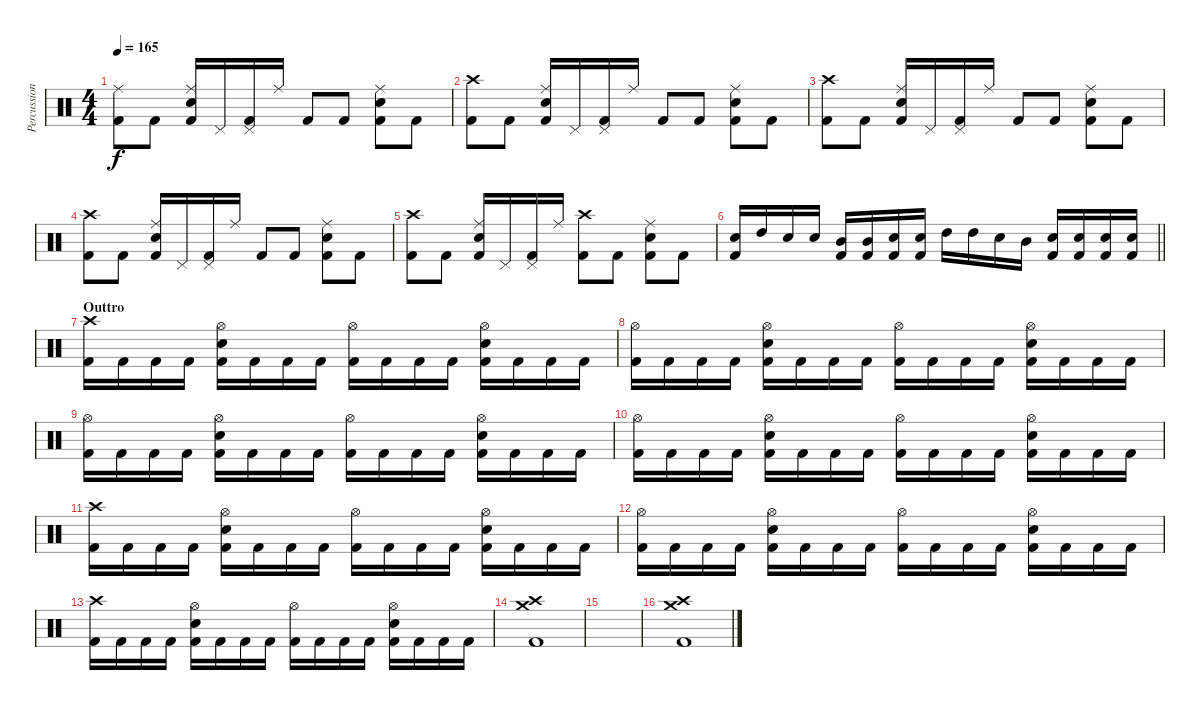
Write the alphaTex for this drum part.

\track ("Percussion" "Percussion") {instrument percussion}
\staff {score}
\articulation defaults
\ts (4 4)
\tempo 165
\clef neutral
\ks c
("Ride (middle)" "Kick (hit) 2").8{dy f} "Kick (hit) 2".8 ("Snare (hit) 2" "Ride (middle)" "Kick (hit) 2").16 "Pedal Hi-Hat (hit)".16 ("Pedal Hi-Hat (hit)" "Kick (hit) 2").16 "Ride (middle)".16 "Kick (hit) 2".8 "Kick (hit) 2".8 ("Ride (middle)" "Snare (hit) 2" "Kick (hit) 2").8 "Kick (hit) 2".8 |
("Crash high (hit)" "Kick (hit) 2").8 "Kick (hit) 2".8 ("Snare (hit) 2" "Ride (middle)" "Kick (hit) 2").16 "Pedal Hi-Hat (hit)".16 ("Pedal Hi-Hat (hit)" "Kick (hit) 2").16 "Ride (middle)".16 "Kick (hit) 2".8 "Kick (hit) 2".8 ("Ride (middle)" "Snare (hit) 2" "Kick (hit) 2").8 "Kick (hit) 2".8 |
("Crash high (hit)" "Kick (hit) 2").8 "Kick (hit) 2".8 ("Snare (hit) 2" "Ride (middle)" "Kick (hit) 2").16 "Pedal Hi-Hat (hit)".16 ("Pedal Hi-Hat (hit)" "Kick (hit) 2").16 "Ride (middle)".16 "Kick (hit) 2".8 "Kick (hit) 2".8 ("Ride (middle)" "Snare (hit) 2" "Kick (hit) 2").8 "Kick (hit) 2".8 |
("Crash high (hit)" "Kick (hit) 2").8 "Kick (hit) 2".8 ("Snare (hit) 2" "Ride (middle)" "Kick (hit) 2").16 "Pedal Hi-Hat (hit)".16 ("Pedal Hi-Hat (hit)" "Kick (hit) 2").16 "Ride (middle)".16 "Kick (hit) 2".8 "Kick (hit) 2".8 ("Ride (middle)" "Snare (hit) 2" "Kick (hit) 2").8 "Kick (hit) 2".8 |
("Crash high (hit)" "Kick (hit) 2").8 "Kick (hit) 2".8 ("Snare (hit) 2" "Ride (middle)" "Kick (hit) 2").16 "Pedal Hi-Hat (hit)".16 ("Pedal Hi-Hat (hit)" "Kick (hit) 2").16 "Ride (middle)".16 ("Crash high (hit)" "Kick (hit) 2").8 "Kick (hit) 2".8 ("Ride (middle)" "Snare (hit) 2" "Kick (hit) 2").8 "Kick (hit) 2".8 |
\barLineRight lightlight
("Snare (hit) 2" "Kick (hit) 2").16 "High Tom (hit)".16 "Snare (hit) 2".16 "Snare (hit) 2".16 ("Mid Tom (hit)" "Kick (hit) 2").16 ("Mid Tom (hit)" "Kick (hit) 2").16 ("Snare (hit) 2" "Kick (hit) 2").16 ("Snare (hit) 2" "Kick (hit) 2").16 "High Tom (hit)".16 "High Tom (hit)".16 "Snare (hit) 2".16 "Mid Tom (hit)".16 ("Snare (hit) 2" "Kick (hit) 2").16 ("Snare (hit) 2" "Kick (hit) 2").16 ("Snare (hit) 2" "Kick (hit) 2").16 ("Snare (hit) 2" "Kick (hit) 2").16 |
\section ("" "Outtro")
("Kick (hit) 2" "Crash high (hit)").16 "Kick (hit) 2".16 "Kick (hit) 2".16 "Kick (hit) 2".16 ("Kick (hit) 2" "Hi-Hat (open)" "Snare (hit) 2").16 "Kick (hit) 2".16 "Kick (hit) 2".16 "Kick (hit) 2".16 ("Kick (hit) 2" "Hi-Hat (open)").16 "Kick (hit) 2".16 "Kick (hit) 2".16 "Kick (hit) 2".16 ("Kick (hit) 2" "Hi-Hat (open)" "Snare (hit) 2").16 "Kick (hit) 2".16 "Kick (hit) 2".16 "Kick (hit) 2".16 |
("Kick (hit) 2" "Hi-Hat (open)").16 "Kick (hit) 2".16 "Kick (hit) 2".16 "Kick (hit) 2".16 ("Kick (hit) 2" "Hi-Hat (open)" "Snare (hit) 2").16 "Kick (hit) 2".16 "Kick (hit) 2".16 "Kick (hit) 2".16 ("Kick (hit) 2" "Hi-Hat (open)").16 "Kick (hit) 2".16 "Kick (hit) 2".16 "Kick (hit) 2".16 ("Kick (hit) 2" "Hi-Hat (open)" "Snare (hit) 2").16 "Kick (hit) 2".16 "Kick (hit) 2".16 "Kick (hit) 2".16 |
("Kick (hit) 2" "Hi-Hat (open)").16 "Kick (hit) 2".16 "Kick (hit) 2".16 "Kick (hit) 2".16 ("Kick (hit) 2" "Hi-Hat (open)" "Snare (hit) 2").16 "Kick (hit) 2".16 "Kick (hit) 2".16 "Kick (hit) 2".16 ("Kick (hit) 2" "Hi-Hat (open)").16 "Kick (hit) 2".16 "Kick (hit) 2".16 "Kick (hit) 2".16 ("Kick (hit) 2" "Hi-Hat (open)" "Snare (hit) 2").16 "Kick (hit) 2".16 "Kick (hit) 2".16 "Kick (hit) 2".16 |
("Kick (hit) 2" "Hi-Hat (open)").16 "Kick (hit) 2".16 "Kick (hit) 2".16 "Kick (hit) 2".16 ("Kick (hit) 2" "Hi-Hat (open)" "Snare (hit) 2").16 "Kick (hit) 2".16 "Kick (hit) 2".16 "Kick (hit) 2".16 ("Kick (hit) 2" "Hi-Hat (open)").16 "Kick (hit) 2".16 "Kick (hit) 2".16 "Kick (hit) 2".16 ("Kick (hit) 2" "Hi-Hat (open)" "Snare (hit) 2").16 "Kick (hit) 2".16 "Kick (hit) 2".16 "Kick (hit) 2".16 |
("Kick (hit) 2" "Crash high (hit)").16 "Kick (hit) 2".16 "Kick (hit) 2".16 "Kick (hit) 2".16 ("Kick (hit) 2" "Hi-Hat (open)" "Snare (hit) 2").16 "Kick (hit) 2".16 "Kick (hit) 2".16 "Kick (hit) 2".16 ("Kick (hit) 2" "Hi-Hat (open)").16 "Kick (hit) 2".16 "Kick (hit) 2".16 "Kick (hit) 2".16 ("Kick (hit) 2" "Hi-Hat (open)" "Snare (hit) 2").16 "Kick (hit) 2".16 "Kick (hit) 2".16 "Kick (hit) 2".16 |
("Kick (hit) 2" "Hi-Hat (open)").16 "Kick (hit) 2".16 "Kick (hit) 2".16 "Kick (hit) 2".16 ("Kick (hit) 2" "Hi-Hat (open)" "Snare (hit) 2").16 "Kick (hit) 2".16 "Kick (hit) 2".16 "Kick (hit) 2".16 ("Kick (hit) 2" "Hi-Hat (open)").16 "Kick (hit) 2".16 "Kick (hit) 2".16 "Kick (hit) 2".16 ("Kick (hit) 2" "Hi-Hat (open)" "Snare (hit) 2").16 "Kick (hit) 2".16 "Kick (hit) 2".16 "Kick (hit) 2".16 |
("Kick (hit) 2" "Crash high (hit)").16 "Kick (hit) 2".16 "Kick (hit) 2".16 "Kick (hit) 2".16 ("Kick (hit) 2" "Hi-Hat (open)" "Snare (hit) 2").16 "Kick (hit) 2".16 "Kick (hit) 2".16 "Kick (hit) 2".16 ("Kick (hit) 2" "Hi-Hat (open)").16 "Kick (hit) 2".16 "Kick (hit) 2".16 "Kick (hit) 2".16 ("Kick (hit) 2" "Hi-Hat (open)" "Snare (hit) 2").16 "Kick (hit) 2".16 "Kick (hit) 2".16 "Kick (hit) 2".16 |
("Crash high (hit)" "Kick (hit) 2" "Crash medium (hit)").1 |
|
("Crash high (hit)" "Kick (hit) 2" "Crash medium (hit)").1
